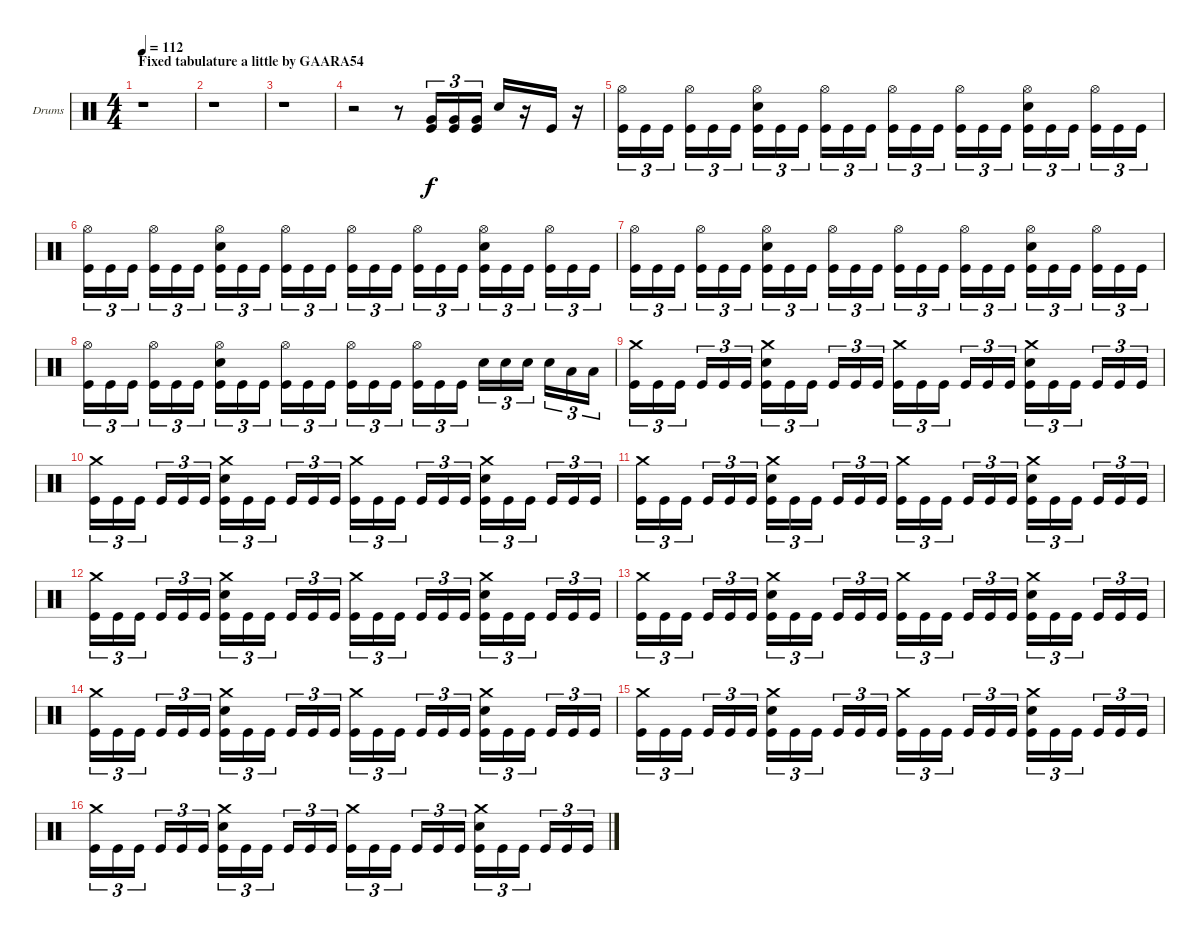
\bracketExtendMode groupsimilarinstruments
\firstSystemTrackNameOrientation horizontal
\otherSystemsTrackNameOrientation horizontal
\track ("Drumkit" "Drums") {instrument percussion}
\staff {score}
\articulation defaults
\ts (4 4)
\section ("" "Fixed tabulature a little by GAARA54")
\tempo 112
\clef neutral
\ks c
r.1{dy f} |
r.1 |
r.1 |
r.2 r.8 ("Very Low Tom (hit)" "Kick (hit)").16{tu (3 2)} ("Very Low Tom (hit)" "Kick (hit)").16{tu (3 2)} ("Very Low Tom (hit)" "Kick (hit)").16{tu (3 2)} "Snare (hit) 2".16 r.16 "Kick (hit)".16 r.16 |
("Hi-Hat (open)" "Kick (hit)").16{tu (3 2)} "Kick (hit)".16{tu (3 2)} "Kick (hit)".16{tu (3 2)} ("Hi-Hat (open)" "Kick (hit)").16{tu (3 2)} "Kick (hit)".16{tu (3 2)} "Kick (hit)".16{tu (3 2)} ("Hi-Hat (open)" "Snare (hit) 2" "Kick (hit)").16{tu (3 2)} "Kick (hit)".16{tu (3 2)} "Kick (hit)".16{tu (3 2)} ("Hi-Hat (open)" "Kick (hit)").16{tu (3 2)} "Kick (hit)".16{tu (3 2)} "Kick (hit)".16{tu (3 2)} ("Hi-Hat (open)" "Kick (hit)").16{tu (3 2)} "Kick (hit)".16{tu (3 2)} "Kick (hit)".16{tu (3 2)} ("Hi-Hat (open)" "Kick (hit)").16{tu (3 2)} "Kick (hit)".16{tu (3 2)} "Kick (hit)".16{tu (3 2)} ("Hi-Hat (open)" "Snare (hit) 2" "Kick (hit)").16{tu (3 2)} "Kick (hit)".16{tu (3 2)} "Kick (hit)".16{tu (3 2)} ("Hi-Hat (open)" "Kick (hit)").16{tu (3 2)} "Kick (hit)".16{tu (3 2)} "Kick (hit)".16{tu (3 2)} |
("Hi-Hat (open)" "Kick (hit)").16{tu (3 2)} "Kick (hit)".16{tu (3 2)} "Kick (hit)".16{tu (3 2)} ("Hi-Hat (open)" "Kick (hit)").16{tu (3 2)} "Kick (hit)".16{tu (3 2)} "Kick (hit)".16{tu (3 2)} ("Hi-Hat (open)" "Snare (hit) 2" "Kick (hit)").16{tu (3 2)} "Kick (hit)".16{tu (3 2)} "Kick (hit)".16{tu (3 2)} ("Hi-Hat (open)" "Kick (hit)").16{tu (3 2)} "Kick (hit)".16{tu (3 2)} "Kick (hit)".16{tu (3 2)} ("Hi-Hat (open)" "Kick (hit)").16{tu (3 2)} "Kick (hit)".16{tu (3 2)} "Kick (hit)".16{tu (3 2)} ("Hi-Hat (open)" "Kick (hit)").16{tu (3 2)} "Kick (hit)".16{tu (3 2)} "Kick (hit)".16{tu (3 2)} ("Hi-Hat (open)" "Snare (hit) 2" "Kick (hit)").16{tu (3 2)} "Kick (hit)".16{tu (3 2)} "Kick (hit)".16{tu (3 2)} ("Hi-Hat (open)" "Kick (hit)").16{tu (3 2)} "Kick (hit)".16{tu (3 2)} "Kick (hit)".16{tu (3 2)} |
("Hi-Hat (open)" "Kick (hit)").16{tu (3 2)} "Kick (hit)".16{tu (3 2)} "Kick (hit)".16{tu (3 2)} ("Hi-Hat (open)" "Kick (hit)").16{tu (3 2)} "Kick (hit)".16{tu (3 2)} "Kick (hit)".16{tu (3 2)} ("Hi-Hat (open)" "Snare (hit) 2" "Kick (hit)").16{tu (3 2)} "Kick (hit)".16{tu (3 2)} "Kick (hit)".16{tu (3 2)} ("Hi-Hat (open)" "Kick (hit)").16{tu (3 2)} "Kick (hit)".16{tu (3 2)} "Kick (hit)".16{tu (3 2)} ("Hi-Hat (open)" "Kick (hit)").16{tu (3 2)} "Kick (hit)".16{tu (3 2)} "Kick (hit)".16{tu (3 2)} ("Hi-Hat (open)" "Kick (hit)").16{tu (3 2)} "Kick (hit)".16{tu (3 2)} "Kick (hit)".16{tu (3 2)} ("Hi-Hat (open)" "Snare (hit) 2" "Kick (hit)").16{tu (3 2)} "Kick (hit)".16{tu (3 2)} "Kick (hit)".16{tu (3 2)} ("Hi-Hat (open)" "Kick (hit)").16{tu (3 2)} "Kick (hit)".16{tu (3 2)} "Kick (hit)".16{tu (3 2)} |
("Hi-Hat (open)" "Kick (hit)").16{tu (3 2)} "Kick (hit)".16{tu (3 2)} "Kick (hit)".16{tu (3 2)} ("Hi-Hat (open)" "Kick (hit)").16{tu (3 2)} "Kick (hit)".16{tu (3 2)} "Kick (hit)".16{tu (3 2)} ("Hi-Hat (open)" "Snare (hit) 2" "Kick (hit)").16{tu (3 2)} "Kick (hit)".16{tu (3 2)} "Kick (hit)".16{tu (3 2)} ("Hi-Hat (open)" "Kick (hit)").16{tu (3 2)} "Kick (hit)".16{tu (3 2)} "Kick (hit)".16{tu (3 2)} ("Hi-Hat (open)" "Kick (hit)").16{tu (3 2)} "Kick (hit)".16{tu (3 2)} "Kick (hit)".16{tu (3 2)} ("Hi-Hat (open)" "Kick (hit)").16{tu (3 2)} "Kick (hit)".16{tu (3 2)} "Kick (hit)".16{tu (3 2)} "Snare (hit) 2".16{tu (3 2)} "Snare (hit) 2".16{tu (3 2)} "Snare (hit) 2".16{tu (3 2)} "Snare (hit) 2".16{tu (3 2)} "Low Tom (hit)".16{tu (3 2)} "Low Tom (hit)".16{tu (3 2)} |
("Crash medium (hit)" "Kick (hit)").16{tu (3 2)} "Kick (hit)".16{tu (3 2)} "Kick (hit)".16{tu (3 2)} "Kick (hit)".16{tu (3 2)} "Kick (hit)".16{tu (3 2)} "Kick (hit)".16{tu (3 2)} ("Crash medium (hit)" "Snare (hit) 2" "Kick (hit)").16{tu (3 2)} "Kick (hit)".16{tu (3 2)} "Kick (hit)".16{tu (3 2)} "Kick (hit)".16{tu (3 2)} "Kick (hit)".16{tu (3 2)} "Kick (hit)".16{tu (3 2)} ("Crash medium (hit)" "Kick (hit)").16{tu (3 2)} "Kick (hit)".16{tu (3 2)} "Kick (hit)".16{tu (3 2)} "Kick (hit)".16{tu (3 2)} "Kick (hit)".16{tu (3 2)} "Kick (hit)".16{tu (3 2)} ("Crash medium (hit)" "Snare (hit) 2" "Kick (hit)").16{tu (3 2)} "Kick (hit)".16{tu (3 2)} "Kick (hit)".16{tu (3 2)} "Kick (hit)".16{tu (3 2)} "Kick (hit)".16{tu (3 2)} "Kick (hit)".16{tu (3 2)} |
("Crash medium (hit)" "Kick (hit)").16{tu (3 2)} "Kick (hit)".16{tu (3 2)} "Kick (hit)".16{tu (3 2)} "Kick (hit)".16{tu (3 2)} "Kick (hit)".16{tu (3 2)} "Kick (hit)".16{tu (3 2)} ("Crash medium (hit)" "Snare (hit) 2" "Kick (hit)").16{tu (3 2)} "Kick (hit)".16{tu (3 2)} "Kick (hit)".16{tu (3 2)} "Kick (hit)".16{tu (3 2)} "Kick (hit)".16{tu (3 2)} "Kick (hit)".16{tu (3 2)} ("Crash medium (hit)" "Kick (hit)").16{tu (3 2)} "Kick (hit)".16{tu (3 2)} "Kick (hit)".16{tu (3 2)} "Kick (hit)".16{tu (3 2)} "Kick (hit)".16{tu (3 2)} "Kick (hit)".16{tu (3 2)} ("Crash medium (hit)" "Snare (hit) 2" "Kick (hit)").16{tu (3 2)} "Kick (hit)".16{tu (3 2)} "Kick (hit)".16{tu (3 2)} "Kick (hit)".16{tu (3 2)} "Kick (hit)".16{tu (3 2)} "Kick (hit)".16{tu (3 2)} |
("Crash medium (hit)" "Kick (hit)").16{tu (3 2)} "Kick (hit)".16{tu (3 2)} "Kick (hit)".16{tu (3 2)} "Kick (hit)".16{tu (3 2)} "Kick (hit)".16{tu (3 2)} "Kick (hit)".16{tu (3 2)} ("Crash medium (hit)" "Snare (hit) 2" "Kick (hit)").16{tu (3 2)} "Kick (hit)".16{tu (3 2)} "Kick (hit)".16{tu (3 2)} "Kick (hit)".16{tu (3 2)} "Kick (hit)".16{tu (3 2)} "Kick (hit)".16{tu (3 2)} ("Crash medium (hit)" "Kick (hit)").16{tu (3 2)} "Kick (hit)".16{tu (3 2)} "Kick (hit)".16{tu (3 2)} "Kick (hit)".16{tu (3 2)} "Kick (hit)".16{tu (3 2)} "Kick (hit)".16{tu (3 2)} ("Crash medium (hit)" "Snare (hit) 2" "Kick (hit)").16{tu (3 2)} "Kick (hit)".16{tu (3 2)} "Kick (hit)".16{tu (3 2)} "Kick (hit)".16{tu (3 2)} "Kick (hit)".16{tu (3 2)} "Kick (hit)".16{tu (3 2)} |
("Crash medium (hit)" "Kick (hit)").16{tu (3 2)} "Kick (hit)".16{tu (3 2)} "Kick (hit)".16{tu (3 2)} "Kick (hit)".16{tu (3 2)} "Kick (hit)".16{tu (3 2)} "Kick (hit)".16{tu (3 2)} ("Crash medium (hit)" "Snare (hit) 2" "Kick (hit)").16{tu (3 2)} "Kick (hit)".16{tu (3 2)} "Kick (hit)".16{tu (3 2)} "Kick (hit)".16{tu (3 2)} "Kick (hit)".16{tu (3 2)} "Kick (hit)".16{tu (3 2)} ("Crash medium (hit)" "Kick (hit)").16{tu (3 2)} "Kick (hit)".16{tu (3 2)} "Kick (hit)".16{tu (3 2)} "Kick (hit)".16{tu (3 2)} "Kick (hit)".16{tu (3 2)} "Kick (hit)".16{tu (3 2)} ("Crash medium (hit)" "Snare (hit) 2" "Kick (hit)").16{tu (3 2)} "Kick (hit)".16{tu (3 2)} "Kick (hit)".16{tu (3 2)} "Kick (hit)".16{tu (3 2)} "Kick (hit)".16{tu (3 2)} "Kick (hit)".16{tu (3 2)} |
("Crash medium (hit)" "Kick (hit)").16{tu (3 2)} "Kick (hit)".16{tu (3 2)} "Kick (hit)".16{tu (3 2)} "Kick (hit)".16{tu (3 2)} "Kick (hit)".16{tu (3 2)} "Kick (hit)".16{tu (3 2)} ("Crash medium (hit)" "Snare (hit) 2" "Kick (hit)").16{tu (3 2)} "Kick (hit)".16{tu (3 2)} "Kick (hit)".16{tu (3 2)} "Kick (hit)".16{tu (3 2)} "Kick (hit)".16{tu (3 2)} "Kick (hit)".16{tu (3 2)} ("Crash medium (hit)" "Kick (hit)").16{tu (3 2)} "Kick (hit)".16{tu (3 2)} "Kick (hit)".16{tu (3 2)} "Kick (hit)".16{tu (3 2)} "Kick (hit)".16{tu (3 2)} "Kick (hit)".16{tu (3 2)} ("Crash medium (hit)" "Snare (hit) 2" "Kick (hit)").16{tu (3 2)} "Kick (hit)".16{tu (3 2)} "Kick (hit)".16{tu (3 2)} "Kick (hit)".16{tu (3 2)} "Kick (hit)".16{tu (3 2)} "Kick (hit)".16{tu (3 2)} |
("Crash medium (hit)" "Kick (hit)").16{tu (3 2)} "Kick (hit)".16{tu (3 2)} "Kick (hit)".16{tu (3 2)} "Kick (hit)".16{tu (3 2)} "Kick (hit)".16{tu (3 2)} "Kick (hit)".16{tu (3 2)} ("Crash medium (hit)" "Snare (hit) 2" "Kick (hit)").16{tu (3 2)} "Kick (hit)".16{tu (3 2)} "Kick (hit)".16{tu (3 2)} "Kick (hit)".16{tu (3 2)} "Kick (hit)".16{tu (3 2)} "Kick (hit)".16{tu (3 2)} ("Crash medium (hit)" "Kick (hit)").16{tu (3 2)} "Kick (hit)".16{tu (3 2)} "Kick (hit)".16{tu (3 2)} "Kick (hit)".16{tu (3 2)} "Kick (hit)".16{tu (3 2)} "Kick (hit)".16{tu (3 2)} ("Crash medium (hit)" "Snare (hit) 2" "Kick (hit)").16{tu (3 2)} "Kick (hit)".16{tu (3 2)} "Kick (hit)".16{tu (3 2)} "Kick (hit)".16{tu (3 2)} "Kick (hit)".16{tu (3 2)} "Kick (hit)".16{tu (3 2)} |
("Crash medium (hit)" "Kick (hit)").16{tu (3 2)} "Kick (hit)".16{tu (3 2)} "Kick (hit)".16{tu (3 2)} "Kick (hit)".16{tu (3 2)} "Kick (hit)".16{tu (3 2)} "Kick (hit)".16{tu (3 2)} ("Crash medium (hit)" "Snare (hit) 2" "Kick (hit)").16{tu (3 2)} "Kick (hit)".16{tu (3 2)} "Kick (hit)".16{tu (3 2)} "Kick (hit)".16{tu (3 2)} "Kick (hit)".16{tu (3 2)} "Kick (hit)".16{tu (3 2)} ("Crash medium (hit)" "Kick (hit)").16{tu (3 2)} "Kick (hit)".16{tu (3 2)} "Kick (hit)".16{tu (3 2)} "Kick (hit)".16{tu (3 2)} "Kick (hit)".16{tu (3 2)} "Kick (hit)".16{tu (3 2)} ("Crash medium (hit)" "Snare (hit) 2" "Kick (hit)").16{tu (3 2)} "Kick (hit)".16{tu (3 2)} "Kick (hit)".16{tu (3 2)} "Kick (hit)".16{tu (3 2)} "Kick (hit)".16{tu (3 2)} "Kick (hit)".16{tu (3 2)} |
("Crash medium (hit)" "Kick (hit)").16{tu (3 2)} "Kick (hit)".16{tu (3 2)} "Kick (hit)".16{tu (3 2)} "Kick (hit)".16{tu (3 2)} "Kick (hit)".16{tu (3 2)} "Kick (hit)".16{tu (3 2)} ("Crash medium (hit)" "Snare (hit) 2" "Kick (hit)").16{tu (3 2)} "Kick (hit)".16{tu (3 2)} "Kick (hit)".16{tu (3 2)} "Kick (hit)".16{tu (3 2)} "Kick (hit)".16{tu (3 2)} "Kick (hit)".16{tu (3 2)} ("Crash medium (hit)" "Kick (hit)").16{tu (3 2)} "Kick (hit)".16{tu (3 2)} "Kick (hit)".16{tu (3 2)} "Kick (hit)".16{tu (3 2)} "Kick (hit)".16{tu (3 2)} "Kick (hit)".16{tu (3 2)} ("Crash medium (hit)" "Snare (hit) 2" "Kick (hit)").16{tu (3 2)} "Kick (hit)".16{tu (3 2)} "Kick (hit)".16{tu (3 2)} "Kick (hit)".16{tu (3 2)} "Kick (hit)".16{tu (3 2)} "Kick (hit)".16{tu (3 2)}
